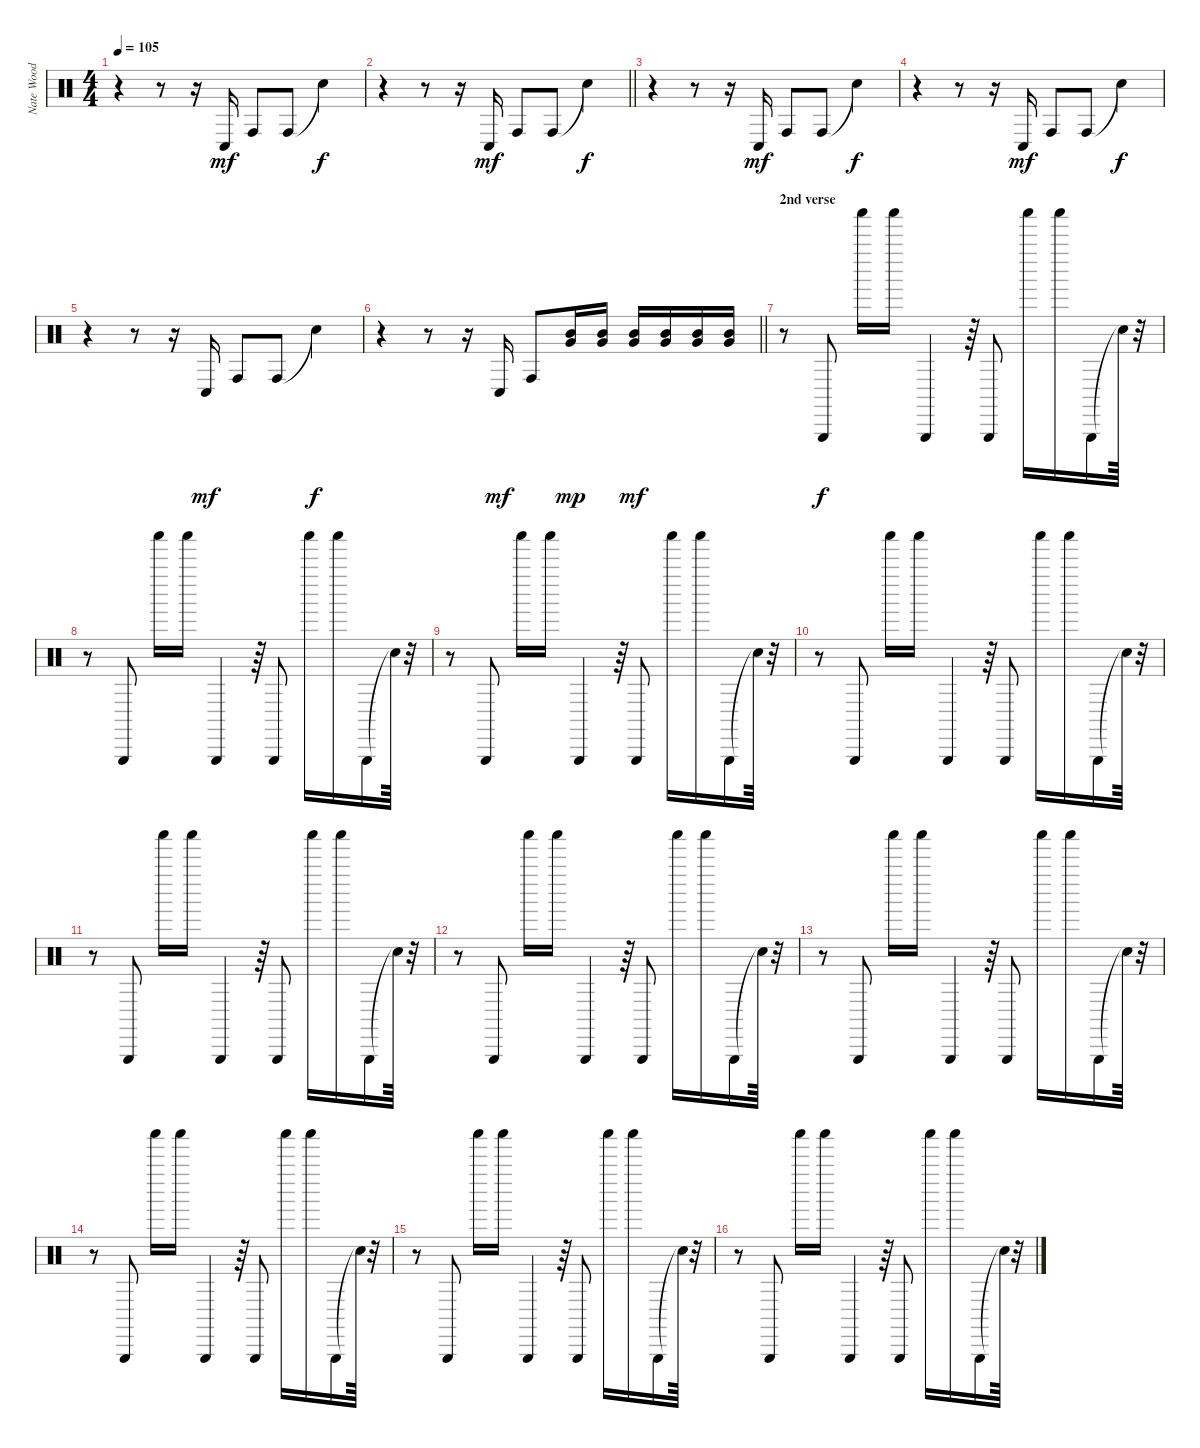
\track ("Nate Wood " "Nate Wood ") {instrument percussion}
\staff {score}
\articulation defaults
\ts (4 4)
\tempo 105
\clef neutral
\ks c
r.4{dy f} r.8 r.16 "Conga low (hit)".16{dy mf} "Conga high (hit)".8 "Conga high (hit)".8 "Snare (hit)"{t}.4{dy f} |
\barLineRight lightlight
r.4 r.8 r.16 "Conga low (hit)".16{dy mf} "Conga high (hit)".8 "Conga high (hit)".8 "Snare (hit)"{t}.4{dy f} |
r.4 r.8 r.16 "Conga low (hit)".16{dy mf} "Conga high (hit)".8 "Conga high (hit)".8 "Snare (hit)"{t}.4{dy f} |
r.4 r.8 r.16 "Conga low (hit)".16{dy mf} "Conga high (hit)".8 "Conga high (hit)".8 "Snare (hit)"{t}.4{dy f} |
r.4 r.8 r.16 "Conga low (hit)".16{dy mf} "Conga high (hit)".8 "Conga high (hit)".8 "Snare (hit)"{t}.4{dy f} |
\barLineRight lightlight
r.4 r.8 r.16 "Conga low (hit)".16{dy mf} "Conga high (hit)".8 ("Mid Tom (hit)" "Very Low Tom (hit)").16{dy mp} ("Mid Tom (hit)" "Very Low Tom (hit)").16 ("Mid Tom (hit)" "Very Low Tom (hit)").16{dy mf} ("Mid Tom (hit)" "Very Low Tom (hit)").16 ("Mid Tom (hit)" "Very Low Tom (hit)").16 ("Mid Tom (hit)" "Very Low Tom (hit)").16 |
\section ("" "2nd verse")
r.8 "Triangle (hit)".8{dy f} "Shaker (hit)".16 "Shaker (hit)".16 "Triangle (hit)".4 r.64 "Triangle (hit)".8 "Shaker (hit)".16 "Shaker (hit)".16 "Triangle (hit)".16 "Snare (hit)"{t}.64 r.32 |
r.8 "Triangle (hit)".8 "Shaker (hit)".16 "Shaker (hit)".16 "Triangle (hit)".4 r.64 "Triangle (hit)".8 "Shaker (hit)".16 "Shaker (hit)".16 "Triangle (hit)".16 "Snare (hit)"{t}.64 r.32 |
r.8 "Triangle (hit)".8 "Shaker (hit)".16 "Shaker (hit)".16 "Triangle (hit)".4 r.64 "Triangle (hit)".8 "Shaker (hit)".16 "Shaker (hit)".16 "Triangle (hit)".16 "Snare (hit)"{t}.64 r.32 |
r.8 "Triangle (hit)".8 "Shaker (hit)".16 "Shaker (hit)".16 "Triangle (hit)".4 r.64 "Triangle (hit)".8 "Shaker (hit)".16 "Shaker (hit)".16 "Triangle (hit)".16 "Snare (hit)"{t}.64 r.32 |
r.8 "Triangle (hit)".8 "Shaker (hit)".16 "Shaker (hit)".16 "Triangle (hit)".4 r.64 "Triangle (hit)".8 "Shaker (hit)".16 "Shaker (hit)".16 "Triangle (hit)".16 "Snare (hit)"{t}.64 r.32 |
r.8 "Triangle (hit)".8 "Shaker (hit)".16 "Shaker (hit)".16 "Triangle (hit)".4 r.64 "Triangle (hit)".8 "Shaker (hit)".16 "Shaker (hit)".16 "Triangle (hit)".16 "Snare (hit)"{t}.64 r.32 |
r.8 "Triangle (hit)".8 "Shaker (hit)".16 "Shaker (hit)".16 "Triangle (hit)".4 r.64 "Triangle (hit)".8 "Shaker (hit)".16 "Shaker (hit)".16 "Triangle (hit)".16 "Snare (hit)"{t}.64 r.32 |
r.8 "Triangle (hit)".8 "Shaker (hit)".16 "Shaker (hit)".16 "Triangle (hit)".4 r.64 "Triangle (hit)".8 "Shaker (hit)".16 "Shaker (hit)".16 "Triangle (hit)".16 "Snare (hit)"{t}.64 r.32 |
r.8 "Triangle (hit)".8 "Shaker (hit)".16 "Shaker (hit)".16 "Triangle (hit)".4 r.64 "Triangle (hit)".8 "Shaker (hit)".16 "Shaker (hit)".16 "Triangle (hit)".16 "Snare (hit)"{t}.64 r.32 |
r.8 "Triangle (hit)".8 "Shaker (hit)".16 "Shaker (hit)".16 "Triangle (hit)".4 r.64 "Triangle (hit)".8 "Shaker (hit)".16 "Shaker (hit)".16 "Triangle (hit)".16 "Snare (hit)"{t}.64 r.32
